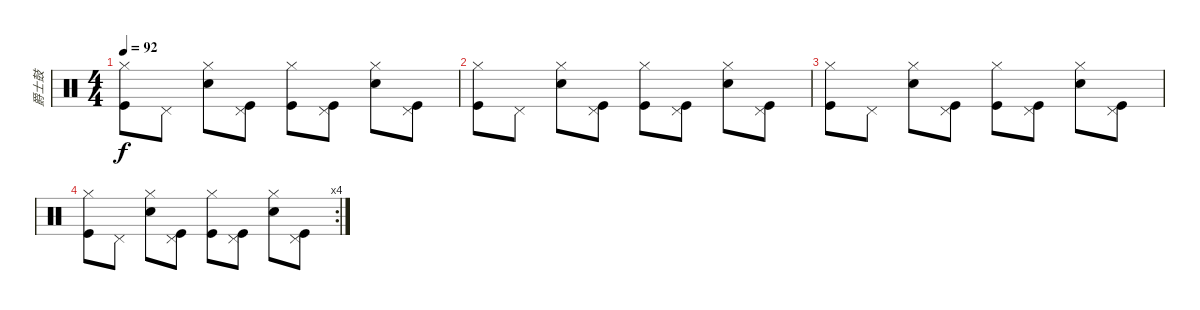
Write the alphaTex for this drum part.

\track ("爵士鼓" "爵士鼓") {instrument percussion}
\staff {score}
\articulation defaults
\ts (4 4)
\tempo 92
\clef neutral
\ks c
("Hi-Hat (closed)" "Kick (hit)").8{dy f} "Pedal Hi-Hat (hit)".8 ("Hi-Hat (closed)" "Snare (hit) 2").8 ("Pedal Hi-Hat (hit)" "Kick (hit)").8 ("Hi-Hat (closed)" "Kick (hit)").8 ("Pedal Hi-Hat (hit)" "Kick (hit)").8 ("Hi-Hat (closed)" "Snare (hit) 2").8 ("Pedal Hi-Hat (hit)" "Kick (hit)").8 |
("Hi-Hat (closed)" "Kick (hit)").8 "Pedal Hi-Hat (hit)".8 ("Hi-Hat (closed)" "Snare (hit) 2").8 ("Pedal Hi-Hat (hit)" "Kick (hit)").8 ("Hi-Hat (closed)" "Kick (hit)").8 ("Pedal Hi-Hat (hit)" "Kick (hit)").8 ("Hi-Hat (closed)" "Snare (hit) 2").8 ("Pedal Hi-Hat (hit)" "Kick (hit)").8 |
("Hi-Hat (closed)" "Kick (hit)").8 "Pedal Hi-Hat (hit)".8 ("Hi-Hat (closed)" "Snare (hit) 2").8 ("Pedal Hi-Hat (hit)" "Kick (hit)").8 ("Hi-Hat (closed)" "Kick (hit)").8 ("Pedal Hi-Hat (hit)" "Kick (hit)").8 ("Hi-Hat (closed)" "Snare (hit) 2").8 ("Pedal Hi-Hat (hit)" "Kick (hit)").8 |
\rc 4
("Hi-Hat (closed)" "Kick (hit)").8 "Pedal Hi-Hat (hit)".8 ("Hi-Hat (closed)" "Snare (hit) 2").8 ("Pedal Hi-Hat (hit)" "Kick (hit)").8 ("Hi-Hat (closed)" "Kick (hit)").8 ("Pedal Hi-Hat (hit)" "Kick (hit)").8 ("Hi-Hat (closed)" "Snare (hit) 2").8 ("Pedal Hi-Hat (hit)" "Kick (hit)").8
